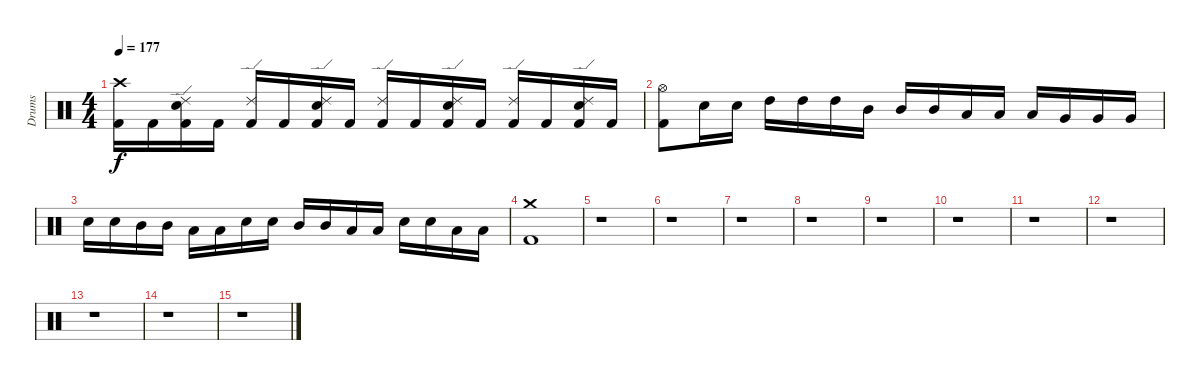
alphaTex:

\track ("Drums" "Drums") {instrument percussion}
\staff {score}
\articulation defaults
\ts (4 4)
\tempo 177
\clef neutral
\ks c
("Kick (hit) 2" "Crash high (hit)").16{dy f} "Kick (hit) 2".16 ("Kick (hit) 2" "Electric Snare (hit)" "Ride (edge) 2").16 "Kick (hit) 2".16 ("Kick (hit) 2" "Ride (edge) 2").16 "Kick (hit) 2".16 ("Kick (hit) 2" "Electric Snare (hit)" "Ride (edge) 2").16 "Kick (hit) 2".16 ("Kick (hit) 2" "Ride (edge) 2").16 "Kick (hit) 2".16 ("Kick (hit) 2" "Electric Snare (hit)" "Ride (edge) 2").16 "Kick (hit) 2".16 ("Kick (hit) 2" "Ride (edge) 2").16 "Kick (hit) 2".16 ("Kick (hit) 2" "Electric Snare (hit)" "Ride (edge) 2").16 "Kick (hit) 2".16 |
("Kick (hit) 2" "Hi-Hat (open)").8 "Electric Snare (hit)".16 "Electric Snare (hit)".16 "High Tom (hit)".16 "High Tom (hit)".16 "High Tom (hit)".16 "Mid Tom (hit)".16 "Mid Tom (hit)".16 "Mid Tom (hit)".16 "Low Tom (hit)".16 "Low Tom (hit)".16 "Low Tom (hit)".16 "Very Low Tom (hit)".16 "Very Low Tom (hit)".16 "Very Low Tom (hit)".16 |
"Electric Snare (hit)".16 "Electric Snare (hit)".16 "Mid Tom (hit)".16 "Mid Tom (hit)".16 "Low Tom (hit)".16 "Low Tom (hit)".16 "Electric Snare (hit)".16 "Electric Snare (hit)".16 "Mid Tom (hit)".16 "Mid Tom (hit)".16 "Low Tom (hit)".16 "Low Tom (hit)".16 "Electric Snare (hit)".16 "Electric Snare (hit)".16 "Low Tom (hit)".16 "Low Tom (hit)".16 |
("Kick (hit) 2" "Crash medium (hit)").1 |
r.1 |
r.1 |
r.1 |
r.1 |
r.1 |
r.1 |
r.1 |
r.1 |
r.1 |
r.1 |
r.1
